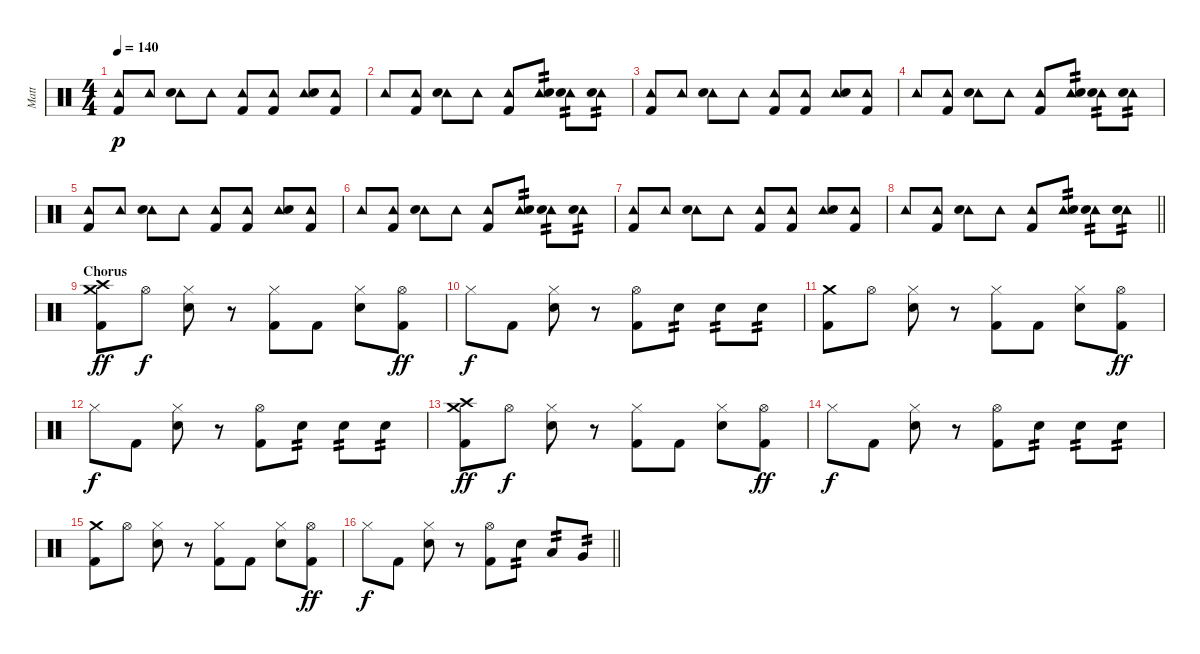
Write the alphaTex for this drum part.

\track ("Matt" "Matt") {instrument percussion}
\staff {score}
\articulation defaults
\ts (4 4)
\tempo 140
\clef neutral
\ks c
("Tambourine (hit)" "Kick (hit) 2").8{dy p} "Tambourine (hit)".8 ("Tambourine (hit)" "Snare (hit) 2").8 "Tambourine (hit)".8 ("Tambourine (hit)" "Kick (hit) 2").8 ("Tambourine (hit)" "Kick (hit) 2").8 ("Tambourine (hit)" "Snare (hit) 2").8 ("Tambourine (hit)" "Kick (hit) 2").8 |
"Tambourine (hit)".8 ("Tambourine (hit)" "Kick (hit) 2").8 ("Tambourine (hit)" "Snare (hit) 2").8 "Tambourine (hit)".8 ("Tambourine (hit)" "Kick (hit) 2").8 ("Tambourine (hit)" "Snare (hit) 2").8{tp 2} ("Tambourine (hit)" "Snare (hit) 2").8{tp 2} ("Tambourine (hit)" "Snare (hit) 2").8{tp 2} |
("Tambourine (hit)" "Kick (hit) 2").8 "Tambourine (hit)".8 ("Tambourine (hit)" "Snare (hit) 2").8 "Tambourine (hit)".8 ("Tambourine (hit)" "Kick (hit) 2").8 ("Tambourine (hit)" "Kick (hit) 2").8 ("Tambourine (hit)" "Snare (hit) 2").8 ("Tambourine (hit)" "Kick (hit) 2").8 |
"Tambourine (hit)".8 ("Tambourine (hit)" "Kick (hit) 2").8 ("Tambourine (hit)" "Snare (hit) 2").8 "Tambourine (hit)".8 ("Tambourine (hit)" "Kick (hit) 2").8 ("Tambourine (hit)" "Snare (hit) 2").8{tp 2} ("Tambourine (hit)" "Snare (hit) 2").8{tp 2} ("Tambourine (hit)" "Snare (hit) 2").8{tp 2} |
("Tambourine (hit)" "Kick (hit) 2").8 "Tambourine (hit)".8 ("Tambourine (hit)" "Snare (hit) 2").8 "Tambourine (hit)".8 ("Tambourine (hit)" "Kick (hit) 2").8 ("Tambourine (hit)" "Kick (hit) 2").8 ("Tambourine (hit)" "Snare (hit) 2").8 ("Tambourine (hit)" "Kick (hit) 2").8 |
"Tambourine (hit)".8 ("Tambourine (hit)" "Kick (hit) 2").8 ("Tambourine (hit)" "Snare (hit) 2").8 "Tambourine (hit)".8 ("Tambourine (hit)" "Kick (hit) 2").8 ("Tambourine (hit)" "Snare (hit) 2").8{tp 2} ("Tambourine (hit)" "Snare (hit) 2").8{tp 2} ("Tambourine (hit)" "Snare (hit) 2").8{tp 2} |
("Tambourine (hit)" "Kick (hit) 2").8 "Tambourine (hit)".8 ("Tambourine (hit)" "Snare (hit) 2").8 "Tambourine (hit)".8 ("Tambourine (hit)" "Kick (hit) 2").8 ("Tambourine (hit)" "Kick (hit) 2").8 ("Tambourine (hit)" "Snare (hit) 2").8 ("Tambourine (hit)" "Kick (hit) 2").8 |
\barLineRight lightlight "Tambourine (hit)".8
("Tambourine (hit)" "Kick (hit) 2").8 ("Tambourine (hit)" "Snare (hit) 2").8 "Tambourine (hit)".8 ("Tambourine (hit)" "Kick (hit) 2").8 ("Tambourine (hit)" "Snare (hit) 2").8{tp 2} ("Tambourine (hit)" "Snare (hit) 2").8{tp 2} ("Tambourine (hit)" "Snare (hit) 2").8{tp 2} |
\section ("" "Chorus")
("Crash high (hit)" "Crash medium (hit)" "Kick (hit) 2").8{dy ff} "Hi-Hat (open)".8{dy f} ("Hi-Hat (closed)" "Snare (hit) 2").8 r.8 ("Hi-Hat (closed)" "Kick (hit) 2").8 "Kick (hit) 2".8 ("Hi-Hat (closed)" "Snare (hit) 2").8 ("Hi-Hat (open)" "Kick (hit) 2").8{dy ff} |
"Hi-Hat (closed)".8{dy f} "Kick (hit) 2".8 ("Hi-Hat (closed)" "Snare (hit) 2").8 r.8 ("Hi-Hat (open)" "Kick (hit) 2").8 "Snare (hit) 2".8{tp 2} "Snare (hit) 2".8{tp 2} "Snare (hit) 2".8{tp 2} |
("Crash medium (hit)" "Kick (hit) 2").8 "Hi-Hat (open)".8 ("Hi-Hat (closed)" "Snare (hit) 2").8 r.8 ("Hi-Hat (closed)" "Kick (hit) 2").8 "Kick (hit) 2".8 ("Hi-Hat (closed)" "Snare (hit) 2").8 ("Hi-Hat (open)" "Kick (hit) 2").8{dy ff} |
"Hi-Hat (closed)".8{dy f} "Kick (hit) 2".8 ("Hi-Hat (closed)" "Snare (hit) 2").8 r.8 ("Hi-Hat (open)" "Kick (hit) 2").8 "Snare (hit) 2".8{tp 2} "Snare (hit) 2".8{tp 2} "Snare (hit) 2".8{tp 2} |
("Crash high (hit)" "Crash medium (hit)" "Kick (hit) 2").8{dy ff} "Hi-Hat (open)".8{dy f} ("Hi-Hat (closed)" "Snare (hit) 2").8 r.8 ("Hi-Hat (closed)" "Kick (hit) 2").8 "Kick (hit) 2".8 ("Hi-Hat (closed)" "Snare (hit) 2").8 ("Hi-Hat (open)" "Kick (hit) 2").8{dy ff} |
"Hi-Hat (closed)".8{dy f} "Kick (hit) 2".8 ("Hi-Hat (closed)" "Snare (hit) 2").8 r.8 ("Hi-Hat (open)" "Kick (hit) 2").8 "Snare (hit) 2".8{tp 2} "Snare (hit) 2".8{tp 2} "Snare (hit) 2".8{tp 2} |
("Crash medium (hit)" "Kick (hit) 2").8 "Hi-Hat (open)".8 ("Hi-Hat (closed)" "Snare (hit) 2").8 r.8 ("Hi-Hat (closed)" "Kick (hit) 2").8 "Kick (hit) 2".8 ("Hi-Hat (closed)" "Snare (hit) 2").8 ("Hi-Hat (open)" "Kick (hit) 2").8{dy ff} |
\barLineRight lightlight "Hi-Hat (closed)".8{dy f} "Kick (hit) 2".8
("Hi-Hat (closed)" "Snare (hit) 2").8 r.8 ("Hi-Hat (open)" "Kick (hit) 2").8 "Snare (hit) 2".8{tp 2} "Low Tom (hit)".8{tp 2} "Very Low Tom (hit)".8{tp 2}
